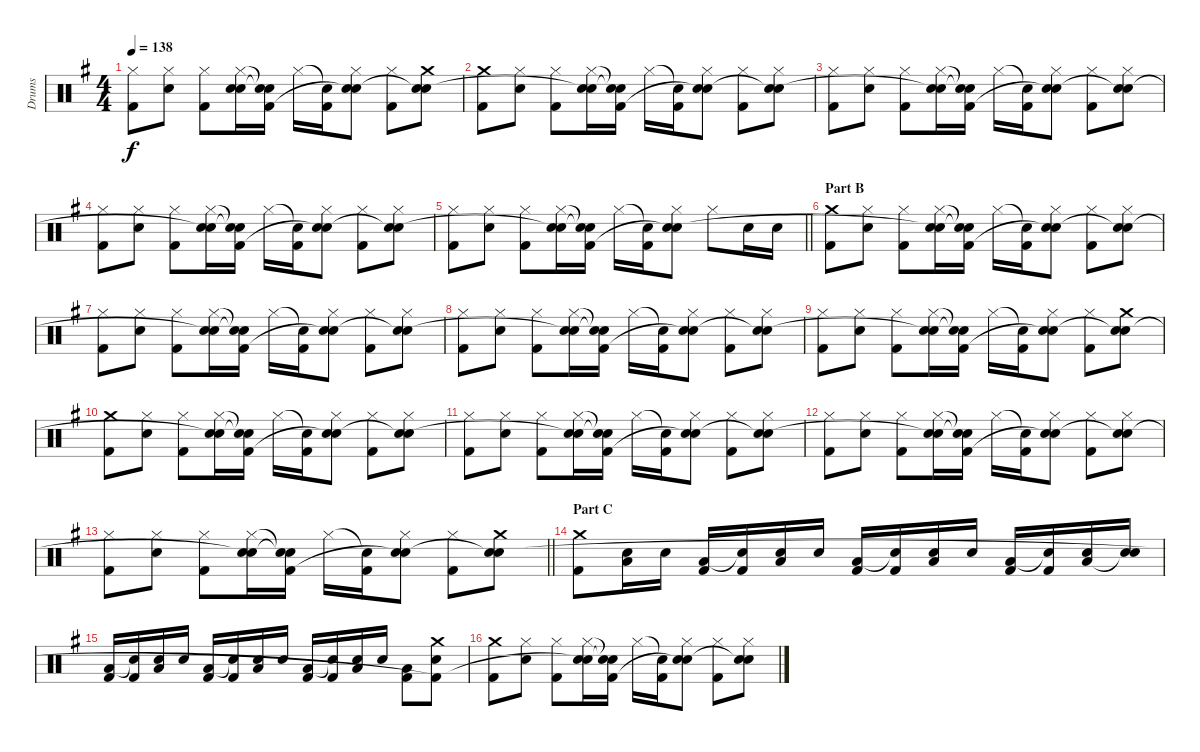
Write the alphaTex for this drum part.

\track ("Drums" "Drums") {instrument percussion}
\staff {score}
\articulation defaults
\ts (4 4)
\tempo 138
\clef neutral
\ks g
("Hi-Hat (closed)" "Kick (hit) 2").8{dy f} ("Hi-Hat (closed)" "Electric Snare (hit)").8 ("Hi-Hat (closed)" "Kick (hit) 2").8 ("Hi-Hat (closed)" "Electric Snare (hit)" "Snare (hit)"{t}).16 ("Snare (hit)"{t} "Snare (hit)"{t} "Kick (hit) 2").16 "Hi-Hat (closed)".16 ("Snare (hit)"{t} "Kick (hit) 2").16 ("Hi-Hat (closed)" "Electric Snare (hit)" "Snare (hit)"{t}).8 ("Hi-Hat (closed)" "Kick (hit) 2").8 ("Crash medium (hit)" "Electric Snare (hit)" "Snare (hit)"{t}).8 |
("Crash medium (hit)" "Kick (hit) 2").8 ("Hi-Hat (closed)" "Electric Snare (hit)").8 ("Hi-Hat (closed)" "Kick (hit) 2").8 ("Hi-Hat (closed)" "Electric Snare (hit)" "Snare (hit)"{t}).16 ("Snare (hit)"{t} "Snare (hit)"{t} "Kick (hit) 2").16 "Hi-Hat (closed)".16 ("Snare (hit)"{t} "Kick (hit) 2").16 ("Hi-Hat (closed)" "Electric Snare (hit)" "Snare (hit)"{t}).8 ("Hi-Hat (closed)" "Kick (hit) 2").8 ("Hi-Hat (closed)" "Electric Snare (hit)" "Snare (hit)"{t}).8 |
("Hi-Hat (closed)" "Kick (hit) 2").8 ("Hi-Hat (closed)" "Electric Snare (hit)").8 ("Hi-Hat (closed)" "Kick (hit) 2").8 ("Hi-Hat (closed)" "Electric Snare (hit)" "Snare (hit)"{t}).16 ("Snare (hit)"{t} "Snare (hit)"{t} "Kick (hit) 2").16 "Hi-Hat (closed)".16 ("Snare (hit)"{t} "Kick (hit) 2").16 ("Hi-Hat (closed)" "Electric Snare (hit)" "Snare (hit)"{t}).8 ("Hi-Hat (closed)" "Kick (hit) 2").8 ("Hi-Hat (closed)" "Electric Snare (hit)" "Snare (hit)"{t}).8 |
("Hi-Hat (closed)" "Kick (hit) 2").8 ("Hi-Hat (closed)" "Electric Snare (hit)").8 ("Hi-Hat (closed)" "Kick (hit) 2").8 ("Hi-Hat (closed)" "Electric Snare (hit)" "Snare (hit)"{t}).16 ("Snare (hit)"{t} "Snare (hit)"{t} "Kick (hit) 2").16 "Hi-Hat (closed)".16 ("Snare (hit)"{t} "Kick (hit) 2").16 ("Hi-Hat (closed)" "Electric Snare (hit)" "Snare (hit)"{t}).8 ("Hi-Hat (closed)" "Kick (hit) 2").8 ("Hi-Hat (closed)" "Electric Snare (hit)" "Snare (hit)"{t}).8 |
\barLineRight lightlight
("Hi-Hat (closed)" "Kick (hit) 2").8 ("Hi-Hat (closed)" "Electric Snare (hit)").8 ("Hi-Hat (closed)" "Kick (hit) 2").8 ("Hi-Hat (closed)" "Electric Snare (hit)" "Snare (hit)"{t}).16 ("Snare (hit)"{t} "Snare (hit)"{t} "Kick (hit) 2").16 "Hi-Hat (closed)".16 ("Snare (hit)"{t} "Kick (hit) 2").16 ("Hi-Hat (closed)" "Electric Snare (hit)" "Snare (hit)"{t}).8 "Hi-Hat (closed)".8 "Electric Snare (hit)".16 "Electric Snare (hit)".16 |
\section ("" "Part B")
("Crash medium (hit)" "Kick (hit) 2").8 ("Hi-Hat (closed)" "Electric Snare (hit)").8 ("Hi-Hat (closed)" "Kick (hit) 2").8 ("Hi-Hat (closed)" "Electric Snare (hit)" "Snare (hit)"{t}).16 ("Snare (hit)"{t} "Snare (hit)"{t} "Kick (hit) 2").16 "Hi-Hat (closed)".16 ("Snare (hit)"{t} "Kick (hit) 2").16 ("Hi-Hat (closed)" "Electric Snare (hit)" "Snare (hit)"{t}).8 ("Hi-Hat (closed)" "Kick (hit) 2").8 ("Hi-Hat (closed)" "Electric Snare (hit)" "Snare (hit)"{t}).8 |
("Hi-Hat (closed)" "Kick (hit) 2").8 ("Hi-Hat (closed)" "Electric Snare (hit)").8 ("Hi-Hat (closed)" "Kick (hit) 2").8 ("Hi-Hat (closed)" "Electric Snare (hit)" "Snare (hit)"{t}).16 ("Snare (hit)"{t} "Snare (hit)"{t} "Kick (hit) 2").16 "Hi-Hat (closed)".16 ("Snare (hit)"{t} "Kick (hit) 2").16 ("Hi-Hat (closed)" "Electric Snare (hit)" "Snare (hit)"{t}).8 ("Hi-Hat (closed)" "Kick (hit) 2").8 ("Hi-Hat (closed)" "Electric Snare (hit)" "Snare (hit)"{t}).8 |
("Hi-Hat (closed)" "Kick (hit) 2").8 ("Hi-Hat (closed)" "Electric Snare (hit)").8 ("Hi-Hat (closed)" "Kick (hit) 2").8 ("Hi-Hat (closed)" "Electric Snare (hit)" "Snare (hit)"{t}).16 ("Snare (hit)"{t} "Snare (hit)"{t} "Kick (hit) 2").16 "Hi-Hat (closed)".16 ("Snare (hit)"{t} "Kick (hit) 2").16 ("Hi-Hat (closed)" "Electric Snare (hit)" "Snare (hit)"{t}).8 ("Hi-Hat (closed)" "Kick (hit) 2").8 ("Hi-Hat (closed)" "Electric Snare (hit)" "Snare (hit)"{t}).8 |
("Hi-Hat (closed)" "Kick (hit) 2").8 ("Hi-Hat (closed)" "Electric Snare (hit)").8 ("Hi-Hat (closed)" "Kick (hit) 2").8 ("Hi-Hat (closed)" "Electric Snare (hit)" "Snare (hit)"{t}).16 ("Snare (hit)"{t} "Snare (hit)"{t} "Kick (hit) 2").16 "Hi-Hat (closed)".16 ("Snare (hit)"{t} "Kick (hit) 2").16 ("Hi-Hat (closed)" "Electric Snare (hit)" "Snare (hit)"{t}).8 ("Hi-Hat (closed)" "Kick (hit) 2").8 ("Crash medium (hit)" "Electric Snare (hit)" "Snare (hit)"{t}).8 |
("Crash medium (hit)" "Kick (hit) 2").8 ("Hi-Hat (closed)" "Electric Snare (hit)").8 ("Hi-Hat (closed)" "Kick (hit) 2").8 ("Hi-Hat (closed)" "Electric Snare (hit)" "Snare (hit)"{t}).16 ("Snare (hit)"{t} "Snare (hit)"{t} "Kick (hit) 2").16 "Hi-Hat (closed)".16 ("Snare (hit)"{t} "Kick (hit) 2").16 ("Hi-Hat (closed)" "Electric Snare (hit)" "Snare (hit)"{t}).8 ("Hi-Hat (closed)" "Kick (hit) 2").8 ("Hi-Hat (closed)" "Electric Snare (hit)" "Snare (hit)"{t}).8 |
("Hi-Hat (closed)" "Kick (hit) 2").8 ("Hi-Hat (closed)" "Electric Snare (hit)").8 ("Hi-Hat (closed)" "Kick (hit) 2").8 ("Hi-Hat (closed)" "Electric Snare (hit)" "Snare (hit)"{t}).16 ("Snare (hit)"{t} "Snare (hit)"{t} "Kick (hit) 2").16 "Hi-Hat (closed)".16 ("Snare (hit)"{t} "Kick (hit) 2").16 ("Hi-Hat (closed)" "Electric Snare (hit)" "Snare (hit)"{t}).8 ("Hi-Hat (closed)" "Kick (hit) 2").8 ("Hi-Hat (closed)" "Electric Snare (hit)" "Snare (hit)"{t}).8 |
("Hi-Hat (closed)" "Kick (hit) 2").8 ("Hi-Hat (closed)" "Electric Snare (hit)").8 ("Hi-Hat (closed)" "Kick (hit) 2").8 ("Hi-Hat (closed)" "Electric Snare (hit)" "Snare (hit)"{t}).16 ("Snare (hit)"{t} "Snare (hit)"{t} "Kick (hit) 2").16 "Hi-Hat (closed)".16 ("Snare (hit)"{t} "Kick (hit) 2").16 ("Hi-Hat (closed)" "Electric Snare (hit)" "Snare (hit)"{t}).8 ("Hi-Hat (closed)" "Kick (hit) 2").8 ("Hi-Hat (closed)" "Electric Snare (hit)" "Snare (hit)"{t}).8 |
\barLineRight lightlight
("Hi-Hat (closed)" "Kick (hit) 2").8 ("Hi-Hat (closed)" "Electric Snare (hit)").8 ("Hi-Hat (closed)" "Kick (hit) 2").8 ("Hi-Hat (closed)" "Electric Snare (hit)" "Snare (hit)"{t}).16 ("Snare (hit)"{t} "Snare (hit)"{t} "Kick (hit) 2").16 "Hi-Hat (closed)".16 ("Snare (hit)"{t} "Kick (hit) 2").16 ("Hi-Hat (closed)" "Electric Snare (hit)" "Snare (hit)"{t}).8 ("Hi-Hat (closed)" "Kick (hit) 2").8 ("Crash medium (hit)" "Electric Snare (hit)" "Snare (hit)"{t}).8 |
\section ("" "Part C")
("Crash medium (hit)" "Kick (hit) 2").8 ("Electric Snare (hit)" "Low Floor Tom (hit)").16 "Electric Snare (hit)".16 ("Low Floor Tom (hit)" "Kick (hit) 2").16 ("Snare (hit)"{t} "Kick (hit) 2").16 ("Electric Snare (hit)" "Low Floor Tom (hit)").16 "Electric Snare (hit)".16 ("Low Floor Tom (hit)" "Kick (hit) 2").16 ("Snare (hit)"{t} "Kick (hit) 2").16 ("Electric Snare (hit)" "Low Floor Tom (hit)").16 "Electric Snare (hit)".16 ("Low Floor Tom (hit)" "Kick (hit) 2").16 ("Snare (hit)"{t} "Kick (hit) 2").16 ("Electric Snare (hit)" "Low Floor Tom (hit)").16 ("Electric Snare (hit)" "Snare (hit)"{t}).16 |
("Low Floor Tom (hit)" "Kick (hit) 2").16 ("Snare (hit)"{t} "Kick (hit) 2").16 ("Electric Snare (hit)" "Low Floor Tom (hit)").16 "Electric Snare (hit)".16 ("Low Floor Tom (hit)" "Kick (hit) 2").16 ("Snare (hit)"{t} "Kick (hit) 2").16 ("Electric Snare (hit)" "Low Floor Tom (hit)").16 "Electric Snare (hit)".16 ("Low Floor Tom (hit)" "Kick (hit) 2").16 ("Snare (hit)"{t} "Kick (hit) 2").16 ("Electric Snare (hit)" "Low Floor Tom (hit)").16 "Electric Snare (hit)".16 ("Low Floor Tom (hit)" "Kick (hit) 2").8 ("Crash medium (hit)" "Electric Snare (hit)" "Kick (hit) 2"{t}).8 |
("Crash medium (hit)" "Kick (hit) 2").8 ("Hi-Hat (closed)" "Electric Snare (hit)").8 ("Hi-Hat (closed)" "Kick (hit) 2").8 ("Hi-Hat (closed)" "Electric Snare (hit)" "Snare (hit)"{t}).16 ("Snare (hit)"{t} "Snare (hit)"{t} "Kick (hit) 2").16 "Hi-Hat (closed)".16 ("Snare (hit)"{t} "Kick (hit) 2").16 ("Hi-Hat (closed)" "Electric Snare (hit)" "Snare (hit)"{t}).8 ("Hi-Hat (closed)" "Kick (hit) 2").8 ("Hi-Hat (closed)" "Electric Snare (hit)" "Snare (hit)"{t}).8
